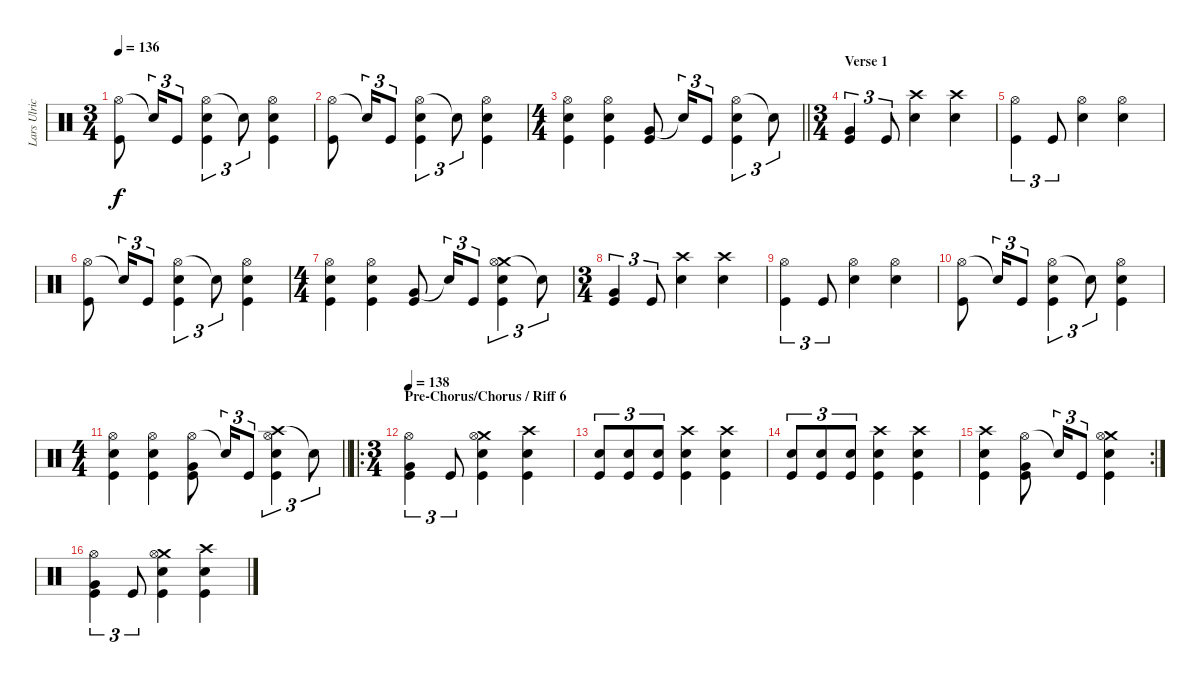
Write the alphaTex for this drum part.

\track ("Lars Ulrich" "Lars Ulric") {instrument percussion}
\staff {score}
\articulation defaults
\ts (3 4)
\tempo 136
\clef neutral
\ks c
("Hi-Hat (open)" "Kick (hit)").8{dy f} "Snare (hit)"{t}.16{tu (3 2)} "Kick (hit)".8{tu (3 2)} ("Hi-Hat (open)" "Snare (hit) 2" "Kick (hit)").4{tu (3 2)} "Snare (hit)"{t}.8{tu (3 2)} ("Hi-Hat (open)" "Snare (hit) 2" "Kick (hit)").4 |
("Hi-Hat (open)" "Kick (hit)").8 "Snare (hit)"{t}.16{tu (3 2)} "Kick (hit)".8{tu (3 2)} ("Hi-Hat (open)" "Snare (hit) 2" "Kick (hit)").4{tu (3 2)} "Snare (hit)"{t}.8{tu (3 2)} ("Hi-Hat (open)" "Snare (hit) 2" "Kick (hit)").4 |
\ts (4 4)
\barLineRight lightlight
("Hi-Hat (open)" "Snare (hit) 2" "Kick (hit)").4 ("Hi-Hat (open)" "Snare (hit) 2" "Kick (hit)").4 ("Very Low Tom (hit)" "Kick (hit)").8 "Snare (hit)"{t}.16{tu (3 2)} "Kick (hit)".8{tu (3 2)} ("Hi-Hat (open)" "Snare (hit) 2" "Kick (hit)").4{tu (3 2)} "Snare (hit)"{t}.8{tu (3 2)} |
\ts (3 4)
\section ("" "Verse 1")
("Very Low Tom (hit)" "Kick (hit)").4{tu (3 2)} "Kick (hit)".8{tu (3 2)} ("Crash high (hit)" "Snare (hit) 2").4 ("Crash high (hit)" "Snare (hit) 2").4 |
("Hi-Hat (open)" "Kick (hit)").4{tu (3 2)} "Kick (hit)".8{tu (3 2)} ("Hi-Hat (open)" "Snare (hit) 2").4 ("Hi-Hat (open)" "Snare (hit) 2").4 |
("Hi-Hat (open)" "Kick (hit)").8 "Snare (hit)"{t}.16{tu (3 2)} "Kick (hit)".8{tu (3 2)} ("Hi-Hat (open)" "Snare (hit) 2" "Kick (hit)").4{tu (3 2)} "Snare (hit)"{t}.8{tu (3 2)} ("Hi-Hat (open)" "Snare (hit) 2" "Kick (hit)").4 |
\ts (4 4)
("Hi-Hat (open)" "Snare (hit) 2" "Kick (hit)").4 ("Hi-Hat (open)" "Snare (hit) 2" "Kick (hit)").4 ("Very Low Tom (hit)" "Kick (hit)").8 "Snare (hit)"{t}.16{tu (3 2)} "Kick (hit)".8{tu (3 2)} ("Crash medium (hit)" "Hi-Hat (open)" "Snare (hit) 2" "Kick (hit)").4{tu (3 2)} "Snare (hit)"{t}.8{tu (3 2)} |
\ts (3 4)
("Very Low Tom (hit)" "Kick (hit)").4{tu (3 2)} "Kick (hit)".8{tu (3 2)} ("Crash high (hit)" "Snare (hit) 2").4 ("Crash high (hit)" "Snare (hit) 2").4 |
("Hi-Hat (open)" "Kick (hit)").4{tu (3 2)} "Kick (hit)".8{tu (3 2)} ("Hi-Hat (open)" "Snare (hit) 2").4 ("Hi-Hat (open)" "Snare (hit) 2").4 |
("Hi-Hat (open)" "Kick (hit)").8 "Snare (hit)"{t}.16{tu (3 2)} "Kick (hit)".8{tu (3 2)} ("Hi-Hat (open)" "Snare (hit) 2" "Kick (hit)").4{tu (3 2)} "Snare (hit)"{t}.8{tu (3 2)} ("Hi-Hat (open)" "Snare (hit) 2" "Kick (hit)").4 |
\ts (4 4)
\barLineRight lightlight
("Hi-Hat (open)" "Snare (hit) 2" "Kick (hit)").4 ("Hi-Hat (open)" "Snare (hit) 2" "Kick (hit)").4 ("Hi-Hat (open)" "Very Low Tom (hit)" "Kick (hit)").8 "Snare (hit)"{t}.16{tu (3 2)} "Kick (hit)".8{tu (3 2)} ("Crash high (hit)" "Hi-Hat (open)" "Snare (hit) 2" "Kick (hit)").4{tu (3 2)} "Snare (hit)"{t}.8{tu (3 2)} |
\ro
\ts (3 4)
\section ("" "Pre-Chorus/Chorus / Riff 6")
\tempo 138
("Hi-Hat (open)" "Very Low Tom (hit)" "Kick (hit)").4{tu (3 2)} "Kick (hit)".8{tu (3 2)} ("Crash medium (hit)" "Hi-Hat (open)" "Snare (hit) 2" "Kick (hit)").4 ("Crash high (hit)" "Snare (hit) 2" "Kick (hit)").4 |
("Snare (hit) 2" "Kick (hit)").8{tu (3 2)} ("Snare (hit) 2" "Kick (hit)").8{tu (3 2)} ("Snare (hit) 2" "Kick (hit)").8{tu (3 2)} ("Crash high (hit)" "Snare (hit) 2" "Kick (hit)").4 ("Crash high (hit)" "Snare (hit) 2" "Kick (hit)").4 |
("Snare (hit) 2" "Kick (hit)").8{tu (3 2)} ("Snare (hit) 2" "Kick (hit)").8{tu (3 2)} ("Snare (hit) 2" "Kick (hit)").8{tu (3 2)} ("Crash high (hit)" "Snare (hit) 2" "Kick (hit)").4 ("Crash high (hit)" "Snare (hit) 2" "Kick (hit)").4 |
\rc 2
("Crash high (hit)" "Snare (hit) 2" "Kick (hit)").4 ("Hi-Hat (open)" "Very Low Tom (hit)" "Kick (hit)").8 "Snare (hit)"{t}.16{tu (3 2)} "Kick (hit)".8{tu (3 2)} ("Crash medium (hit)" "Hi-Hat (open)" "Snare (hit) 2" "Kick (hit)").4 |
("Hi-Hat (open)" "Very Low Tom (hit)" "Kick (hit)").4{tu (3 2)} "Kick (hit)".8{tu (3 2)} ("Crash medium (hit)" "Hi-Hat (open)" "Snare (hit) 2" "Kick (hit)").4 ("Crash high (hit)" "Snare (hit) 2" "Kick (hit)").4
